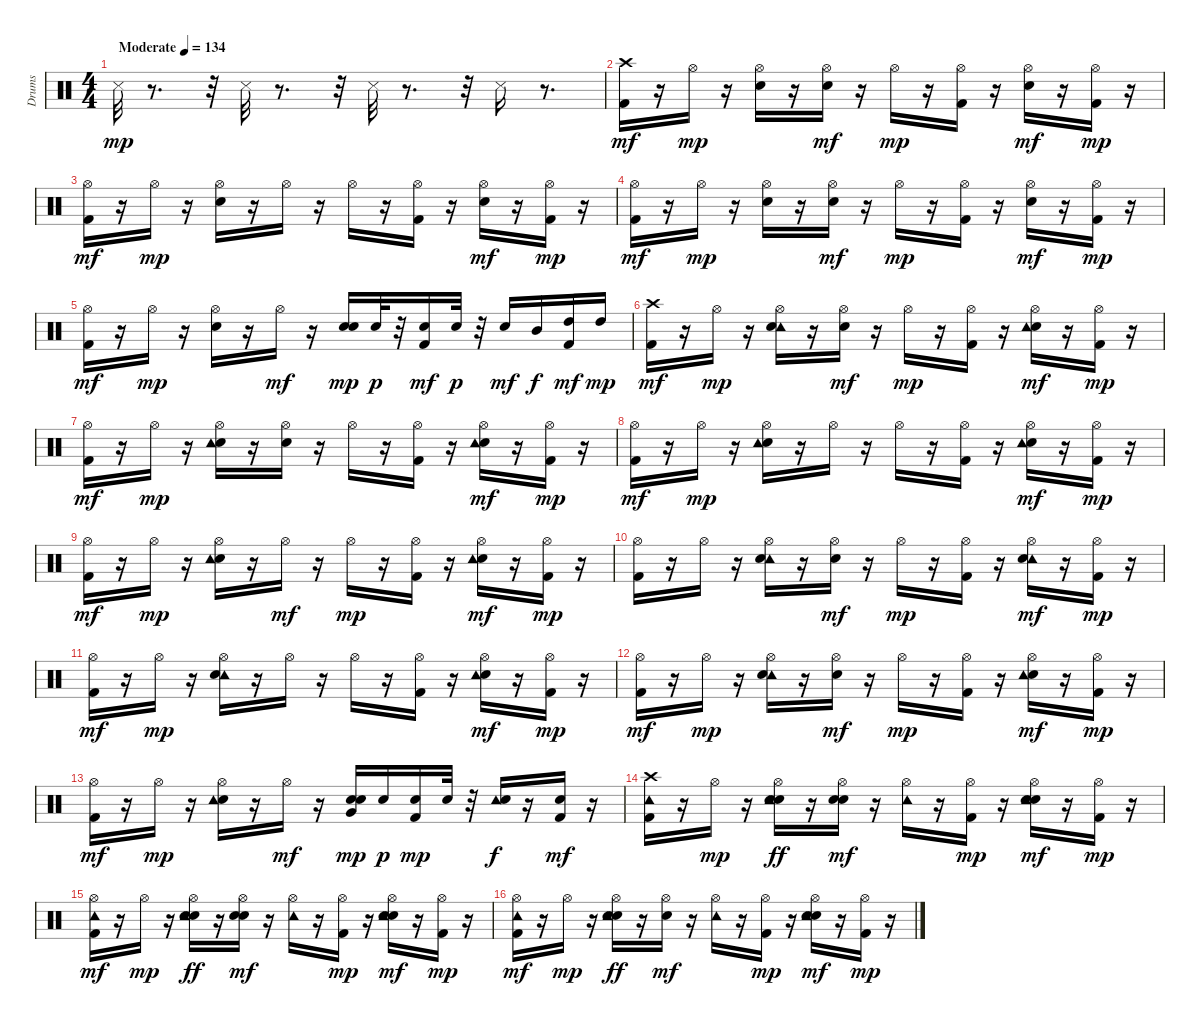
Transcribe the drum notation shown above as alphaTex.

\track ("Drums" "Drums") {instrument percussion}
\staff {score}
\articulation defaults
\ts (4 4)
\tempo (134 "Moderate")
\clef neutral
\ks c "Snare (side stick) 3".32{dy mp}
r.8{d} r.32 "Snare (side stick) 3".32 r.8{d} r.32 "Snare (side stick) 3".32 r.8{d} r.32 "Snare (side stick) 3".16 r.8{d} |
("Kick (hit) 2" "Crash high (hit)").16{dy mf} r.16 "Hi-Hat (open)".16{dy mp} r.16 ("Hi-Hat (open)" "Snare (hit) 2").16 r.16 ("Hi-Hat (open)" "Snare (hit) 2").16{dy mf} r.16 "Hi-Hat (open)".16{dy mp} r.16 ("Kick (hit) 2" "Hi-Hat (open)").16 r.16 ("Hi-Hat (open)" "Snare (hit) 2").16{dy mf} r.16 ("Kick (hit) 2" "Hi-Hat (open)").16{dy mp} r.16 |
("Kick (hit) 2" "Hi-Hat (open)").16{dy mf} r.16 "Hi-Hat (open)".16{dy mp} r.16 ("Hi-Hat (open)" "Snare (hit) 2").16 r.16 "Hi-Hat (open)".16 r.16 "Hi-Hat (open)".16 r.16 ("Kick (hit) 2" "Hi-Hat (open)").16 r.16 ("Hi-Hat (open)" "Snare (hit) 2").16{dy mf} r.16 ("Kick (hit) 2" "Hi-Hat (open)").16{dy mp} r.16 |
("Kick (hit) 2" "Hi-Hat (open)").16{dy mf} r.16 "Hi-Hat (open)".16{dy mp} r.16 ("Hi-Hat (open)" "Snare (hit) 2").16 r.16 ("Hi-Hat (open)" "Snare (hit) 2").16{dy mf} r.16 "Hi-Hat (open)".16{dy mp} r.16 ("Kick (hit) 2" "Hi-Hat (open)").16 r.16 ("Hi-Hat (open)" "Snare (hit) 2").16{dy mf} r.16 ("Kick (hit) 2" "Hi-Hat (open)").16{dy mp} r.16 |
("Kick (hit) 2" "Hi-Hat (open)").16{dy mf} r.16 "Hi-Hat (open)".16{dy mp} r.16 ("Hi-Hat (open)" "Snare (hit) 2").16 r.16 "Hi-Hat (open)".16{dy mf} r.16 ("Snare (hit) 2" "Snare (hit) 2").16{dy mp} "Snare (hit) 2".32{dy p} r.32 ("Kick (hit) 2" "Snare (hit) 2").16{dy mf} "Snare (hit) 2".32{dy p} r.32 "Snare (hit) 2".16{dy mf} "Mid Tom (hit)".16{dy f} ("Kick (hit) 2" "High Tom (hit)").16{dy mf} "High Tom (hit)".16{dy mp} |
("Kick (hit) 2" "Crash high (hit)").16{dy mf} r.16 "Hi-Hat (open)".16{dy mp} r.16 ("Tambourine (hit)" "Hi-Hat (open)" "Snare (hit) 2").16 r.16 ("Hi-Hat (open)" "Snare (hit) 2").16{dy mf} r.16 "Hi-Hat (open)".16{dy mp} r.16 ("Kick (hit) 2" "Hi-Hat (open)").16 r.16 ("Hi-Hat (open)" "Snare (hit) 2" "Tambourine (hit)").16{dy mf} r.16 ("Kick (hit) 2" "Hi-Hat (open)").16{dy mp} r.16 |
("Kick (hit) 2" "Hi-Hat (open)").16{dy mf} r.16 "Hi-Hat (open)".16{dy mp} r.16 ("Hi-Hat (open)" "Snare (hit) 2" "Tambourine (hit)").16 r.16 ("Hi-Hat (open)" "Snare (hit) 2").16 r.16 "Hi-Hat (open)".16 r.16 ("Kick (hit) 2" "Hi-Hat (open)").16 r.16 ("Hi-Hat (open)" "Snare (hit) 2" "Tambourine (hit)").16{dy mf} r.16 ("Kick (hit) 2" "Hi-Hat (open)").16{dy mp} r.16 |
("Kick (hit) 2" "Hi-Hat (open)").16{dy mf} r.16 "Hi-Hat (open)".16{dy mp} r.16 ("Hi-Hat (open)" "Snare (hit) 2" "Tambourine (hit)").16 r.16 "Hi-Hat (open)".16 r.16 "Hi-Hat (open)".16 r.16 ("Kick (hit) 2" "Hi-Hat (open)").16 r.16 ("Hi-Hat (open)" "Snare (hit) 2" "Tambourine (hit)").16{dy mf} r.16 ("Kick (hit) 2" "Hi-Hat (open)").16{dy mp} r.16 |
("Kick (hit) 2" "Hi-Hat (open)").16{dy mf} r.16 "Hi-Hat (open)".16{dy mp} r.16 ("Hi-Hat (open)" "Snare (hit) 2" "Tambourine (hit)").16 r.16 "Hi-Hat (open)".16{dy mf} r.16 "Hi-Hat (open)".16{dy mp} r.16 ("Kick (hit) 2" "Hi-Hat (open)").16 r.16 ("Hi-Hat (open)" "Snare (hit) 2" "Tambourine (hit)").16{dy mf} r.16 ("Kick (hit) 2" "Hi-Hat (open)").16{dy mp} r.16 |
("Kick (hit) 2" "Hi-Hat (open)").16 r.16 "Hi-Hat (open)".16 r.16 ("Tambourine (hit)" "Hi-Hat (open)" "Snare (hit) 2").16 r.16 ("Hi-Hat (open)" "Snare (hit) 2").16{dy mf} r.16 "Hi-Hat (open)".16{dy mp} r.16 ("Kick (hit) 2" "Hi-Hat (open)").16 r.16 ("Hi-Hat (open)" "Tambourine (hit)" "Snare (hit) 2").16{dy mf} r.16 ("Kick (hit) 2" "Hi-Hat (open)").16{dy mp} r.16 |
("Kick (hit) 2" "Hi-Hat (open)").16{dy mf} r.16 "Hi-Hat (open)".16{dy mp} r.16 ("Tambourine (hit)" "Hi-Hat (open)" "Snare (hit) 2").16 r.16 "Hi-Hat (open)".16 r.16 "Hi-Hat (open)".16 r.16 ("Kick (hit) 2" "Hi-Hat (open)").16 r.16 ("Hi-Hat (open)" "Snare (hit) 2" "Tambourine (hit)").16{dy mf} r.16 ("Kick (hit) 2" "Hi-Hat (open)").16{dy mp} r.16 |
("Kick (hit) 2" "Hi-Hat (open)").16{dy mf} r.16 "Hi-Hat (open)".16{dy mp} r.16 ("Tambourine (hit)" "Hi-Hat (open)" "Snare (hit) 2").16 r.16 ("Hi-Hat (open)" "Snare (hit) 2").16{dy mf} r.16 "Hi-Hat (open)".16{dy mp} r.16 ("Kick (hit) 2" "Hi-Hat (open)").16 r.16 ("Hi-Hat (open)" "Snare (hit) 2" "Tambourine (hit)").16{dy mf} r.16 ("Kick (hit) 2" "Hi-Hat (open)").16{dy mp} r.16 |
("Kick (hit) 2" "Hi-Hat (open)").16{dy mf} r.16 "Hi-Hat (open)".16{dy mp} r.16 ("Hi-Hat (open)" "Snare (hit) 2" "Tambourine (hit)").16 r.16 "Hi-Hat (open)".16{dy mf} r.16 ("Snare (hit) 2" "Very Low Tom (hit)" "Snare (hit) 2").16{dy mp} "Snare (hit) 2".16{dy p} ("Kick (hit) 2" "Snare (hit) 2").16{dy mp} "Snare (hit) 2".32 r.32 ("Tambourine (hit)" "Snare (hit) 2").16{dy f} r.16 ("Kick (hit) 2" "Snare (hit) 2").16{dy mf} r.16 |
("Kick (hit) 2" "Tambourine (hit)" "Crash high (hit)").16 r.16 "Hi-Hat (open)".16{dy mp} r.16 ("Hi-Hat (open)" "Snare (hit) 2" "Hand Clap (hit)" "Tambourine (hit)").16{dy ff} r.16 ("Hi-Hat (open)" "Snare (hit) 2" "Hand Clap (hit)").16{dy mf} r.16 ("Hi-Hat (open)" "Tambourine (hit)").16 r.16 ("Kick (hit) 2" "Hi-Hat (open)").16{dy mp} r.16 ("Hi-Hat (open)" "Snare (hit) 2" "Hand Clap (hit)" "Tambourine (hit)").16{dy mf} r.16 ("Kick (hit) 2" "Hi-Hat (open)").16{dy mp} r.16 |
("Kick (hit) 2" "Hi-Hat (open)" "Tambourine (hit)").16{dy mf} r.16 "Hi-Hat (open)".16{dy mp} r.16 ("Hi-Hat (open)" "Snare (hit) 2" "Hand Clap (hit)" "Tambourine (hit)").16{dy ff} r.16 ("Hi-Hat (open)" "Snare (hit) 2" "Hand Clap (hit)").16{dy mf} r.16 ("Hi-Hat (open)" "Tambourine (hit)").16 r.16 ("Kick (hit) 2" "Hi-Hat (open)").16{dy mp} r.16 ("Hand Clap (hit)" "Hi-Hat (open)" "Snare (hit) 2" "Tambourine (hit)").16{dy mf} r.16 ("Kick (hit) 2" "Hi-Hat (open)").16{dy mp} r.16 |
("Kick (hit) 2" "Tambourine (hit)" "Hi-Hat (open)").16{dy mf} r.16 "Hi-Hat (open)".16{dy mp} r.16 ("Hi-Hat (open)" "Snare (hit) 2" "Hand Clap (hit)" "Tambourine (hit)").16{dy ff} r.16 ("Hi-Hat (open)" "Hand Clap (hit)").16{dy mf} r.16 ("Hi-Hat (open)" "Tambourine (hit)").16 r.16 ("Kick (hit) 2" "Hi-Hat (open)").16{dy mp} r.16 ("Hi-Hat (open)" "Snare (hit) 2" "Hand Clap (hit)" "Tambourine (hit)").16{dy mf} r.16 ("Kick (hit) 2" "Hi-Hat (open)").16{dy mp} r.16
